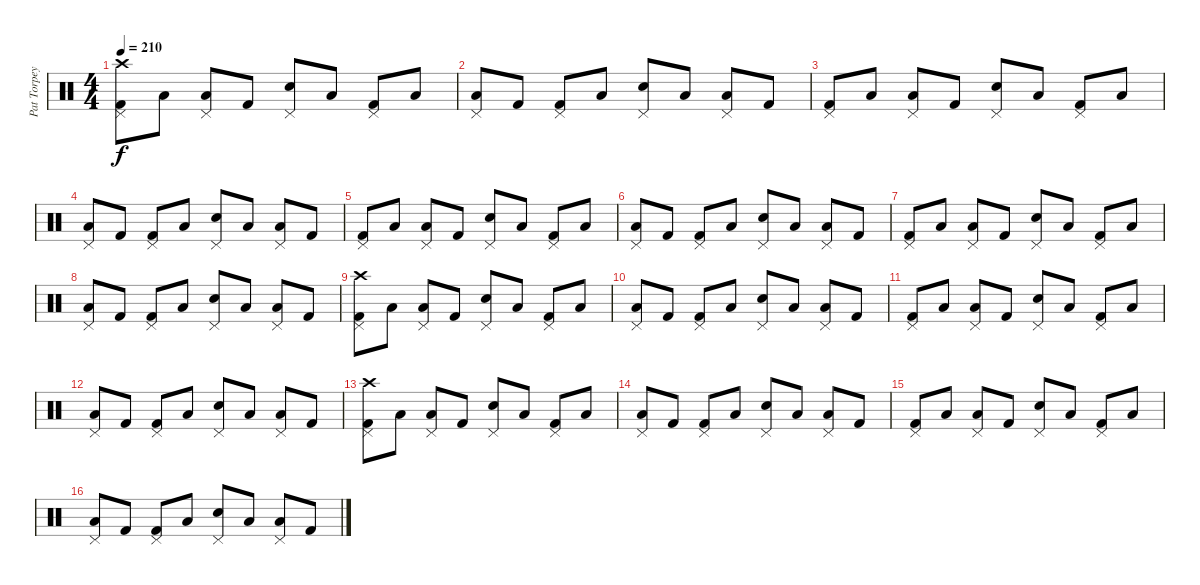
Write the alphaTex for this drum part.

\track ("Pat Torpey" "Pat Torpey") {instrument percussion}
\staff {score}
\articulation defaults
\ts (4 4)
\tempo 210
\clef neutral
\ks c
("Crash high (hit)" "Pedal Hi-Hat (hit)" "Kick (hit) 2").8{dy f} "Low Floor Tom (hit)".8 ("Pedal Hi-Hat (hit)" "Low Floor Tom (hit)").8 "Kick (hit) 2".8 ("Pedal Hi-Hat (hit)" "Snare (hit) 2").8 "Low Floor Tom (hit)".8 ("Pedal Hi-Hat (hit)" "Kick (hit) 2").8 "Low Floor Tom (hit)".8 |
("Pedal Hi-Hat (hit)" "Low Floor Tom (hit)").8 "Kick (hit) 2".8 ("Pedal Hi-Hat (hit)" "Kick (hit) 2").8 "Low Floor Tom (hit)".8 ("Pedal Hi-Hat (hit)" "Snare (hit) 2").8 "Low Floor Tom (hit)".8 ("Pedal Hi-Hat (hit)" "Low Floor Tom (hit)").8 "Kick (hit) 2".8 |
("Pedal Hi-Hat (hit)" "Kick (hit) 2").8 "Low Floor Tom (hit)".8 ("Pedal Hi-Hat (hit)" "Low Floor Tom (hit)").8 "Kick (hit) 2".8 ("Pedal Hi-Hat (hit)" "Snare (hit) 2").8 "Low Floor Tom (hit)".8 ("Pedal Hi-Hat (hit)" "Kick (hit) 2").8 "Low Floor Tom (hit)".8 |
("Pedal Hi-Hat (hit)" "Low Floor Tom (hit)").8 "Kick (hit) 2".8 ("Pedal Hi-Hat (hit)" "Kick (hit) 2").8 "Low Floor Tom (hit)".8 ("Pedal Hi-Hat (hit)" "Snare (hit) 2").8 "Low Floor Tom (hit)".8 ("Pedal Hi-Hat (hit)" "Low Floor Tom (hit)").8 "Kick (hit) 2".8 |
("Pedal Hi-Hat (hit)" "Kick (hit) 2").8 "Low Floor Tom (hit)".8 ("Pedal Hi-Hat (hit)" "Low Floor Tom (hit)").8 "Kick (hit) 2".8 ("Pedal Hi-Hat (hit)" "Snare (hit) 2").8 "Low Floor Tom (hit)".8 ("Pedal Hi-Hat (hit)" "Kick (hit) 2").8 "Low Floor Tom (hit)".8 |
("Pedal Hi-Hat (hit)" "Low Floor Tom (hit)").8 "Kick (hit) 2".8 ("Pedal Hi-Hat (hit)" "Kick (hit) 2").8 "Low Floor Tom (hit)".8 ("Pedal Hi-Hat (hit)" "Snare (hit) 2").8 "Low Floor Tom (hit)".8 ("Pedal Hi-Hat (hit)" "Low Floor Tom (hit)").8 "Kick (hit) 2".8 |
("Pedal Hi-Hat (hit)" "Kick (hit) 2").8 "Low Floor Tom (hit)".8 ("Pedal Hi-Hat (hit)" "Low Floor Tom (hit)").8 "Kick (hit) 2".8 ("Pedal Hi-Hat (hit)" "Snare (hit) 2").8 "Low Floor Tom (hit)".8 ("Pedal Hi-Hat (hit)" "Kick (hit) 2").8 "Low Floor Tom (hit)".8 |
("Pedal Hi-Hat (hit)" "Low Floor Tom (hit)").8 "Kick (hit) 2".8 ("Pedal Hi-Hat (hit)" "Kick (hit) 2").8 "Low Floor Tom (hit)".8 ("Pedal Hi-Hat (hit)" "Snare (hit) 2").8 "Low Floor Tom (hit)".8 ("Pedal Hi-Hat (hit)" "Low Floor Tom (hit)").8 "Kick (hit) 2".8 |
("Crash high (hit)" "Pedal Hi-Hat (hit)" "Kick (hit) 2").8 "Low Floor Tom (hit)".8 ("Pedal Hi-Hat (hit)" "Low Floor Tom (hit)").8 "Kick (hit) 2".8 ("Pedal Hi-Hat (hit)" "Snare (hit) 2").8 "Low Floor Tom (hit)".8 ("Pedal Hi-Hat (hit)" "Kick (hit) 2").8 "Low Floor Tom (hit)".8 |
("Pedal Hi-Hat (hit)" "Low Floor Tom (hit)").8 "Kick (hit) 2".8 ("Pedal Hi-Hat (hit)" "Kick (hit) 2").8 "Low Floor Tom (hit)".8 ("Pedal Hi-Hat (hit)" "Snare (hit) 2").8 "Low Floor Tom (hit)".8 ("Pedal Hi-Hat (hit)" "Low Floor Tom (hit)").8 "Kick (hit) 2".8 |
("Pedal Hi-Hat (hit)" "Kick (hit) 2").8 "Low Floor Tom (hit)".8 ("Pedal Hi-Hat (hit)" "Low Floor Tom (hit)").8 "Kick (hit) 2".8 ("Pedal Hi-Hat (hit)" "Snare (hit) 2").8 "Low Floor Tom (hit)".8 ("Pedal Hi-Hat (hit)" "Kick (hit) 2").8 "Low Floor Tom (hit)".8 |
("Pedal Hi-Hat (hit)" "Low Floor Tom (hit)").8 "Kick (hit) 2".8 ("Pedal Hi-Hat (hit)" "Kick (hit) 2").8 "Low Floor Tom (hit)".8 ("Pedal Hi-Hat (hit)" "Snare (hit) 2").8 "Low Floor Tom (hit)".8 ("Pedal Hi-Hat (hit)" "Low Floor Tom (hit)").8 "Kick (hit) 2".8 |
("Crash high (hit)" "Pedal Hi-Hat (hit)" "Kick (hit) 2").8 "Low Floor Tom (hit)".8 ("Pedal Hi-Hat (hit)" "Low Floor Tom (hit)").8 "Kick (hit) 2".8 ("Pedal Hi-Hat (hit)" "Snare (hit) 2").8 "Low Floor Tom (hit)".8 ("Pedal Hi-Hat (hit)" "Kick (hit) 2").8 "Low Floor Tom (hit)".8 |
("Pedal Hi-Hat (hit)" "Low Floor Tom (hit)").8 "Kick (hit) 2".8 ("Pedal Hi-Hat (hit)" "Kick (hit) 2").8 "Low Floor Tom (hit)".8 ("Pedal Hi-Hat (hit)" "Snare (hit) 2").8 "Low Floor Tom (hit)".8 ("Pedal Hi-Hat (hit)" "Low Floor Tom (hit)").8 "Kick (hit) 2".8 |
("Pedal Hi-Hat (hit)" "Kick (hit) 2").8 "Low Floor Tom (hit)".8 ("Pedal Hi-Hat (hit)" "Low Floor Tom (hit)").8 "Kick (hit) 2".8 ("Pedal Hi-Hat (hit)" "Snare (hit) 2").8 "Low Floor Tom (hit)".8 ("Pedal Hi-Hat (hit)" "Kick (hit) 2").8 "Low Floor Tom (hit)".8 |
("Pedal Hi-Hat (hit)" "Low Floor Tom (hit)").8 "Kick (hit) 2".8 ("Pedal Hi-Hat (hit)" "Kick (hit) 2").8 "Low Floor Tom (hit)".8 ("Pedal Hi-Hat (hit)" "Snare (hit) 2").8 "Low Floor Tom (hit)".8 ("Pedal Hi-Hat (hit)" "Low Floor Tom (hit)").8 "Kick (hit) 2".8
